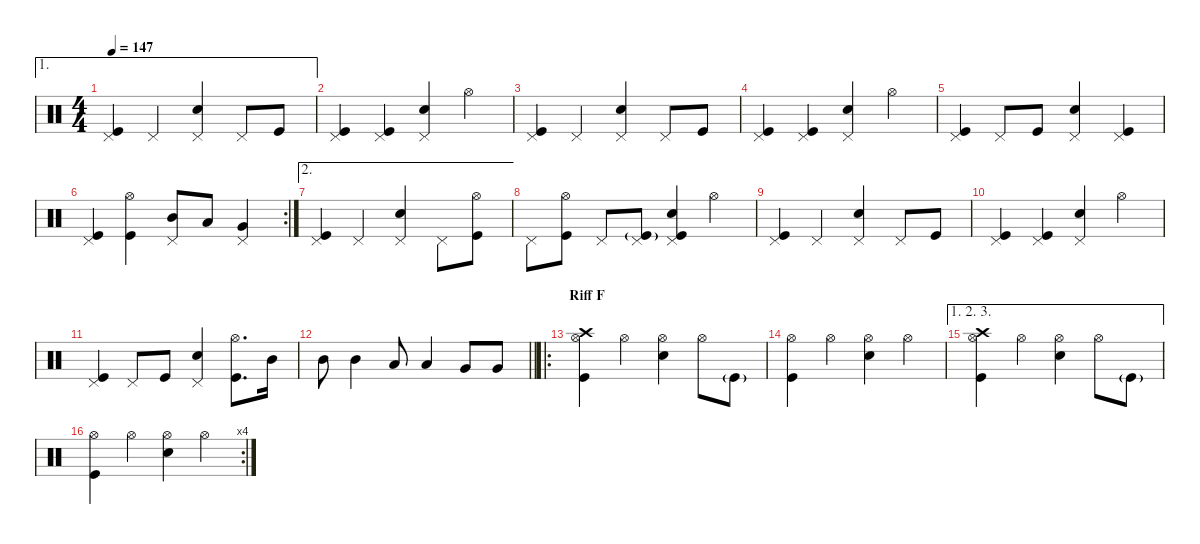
\defaultSystemsLayout 4
\hideDynamics
\bracketExtendMode nobrackets
\singleTrackTrackNamePolicy hidden
\multiTrackTrackNamePolicy hidden
\firstSystemTrackNameMode fullname
\otherSystemsTrackNameOrientation horizontal
\track ("Percussion" "drm.") {instrument percussion}
\staff {score}
\articulation defaults
\ae 1
\ts (4 4)
\tempo 147
\clef neutral
\ks c
("Kick (hit)" "Pedal Hi-Hat (hit)").4{dy f} "Pedal Hi-Hat (hit)".4 ("Snare (hit) 2" "Pedal Hi-Hat (hit)").4 "Pedal Hi-Hat (hit)".8 "Kick (hit)".8 |
("Kick (hit)" "Pedal Hi-Hat (hit)").4 ("Kick (hit)" "Pedal Hi-Hat (hit)").4 ("Snare (hit) 2" "Pedal Hi-Hat (hit)").4 "Hi-Hat (open)".4 |
("Kick (hit)" "Pedal Hi-Hat (hit)").4 "Pedal Hi-Hat (hit)".4 ("Snare (hit) 2" "Pedal Hi-Hat (hit)").4 "Pedal Hi-Hat (hit)".8 "Kick (hit)".8 |
("Kick (hit)" "Pedal Hi-Hat (hit)").4 ("Kick (hit)" "Pedal Hi-Hat (hit)").4 ("Snare (hit) 2" "Pedal Hi-Hat (hit)").4 "Hi-Hat (open)".4 |
("Kick (hit)" "Pedal Hi-Hat (hit)").4 "Pedal Hi-Hat (hit)".8 "Kick (hit)".8 ("Snare (hit) 2" "Pedal Hi-Hat (hit)").4 ("Kick (hit)" "Pedal Hi-Hat (hit)").4 |
\rc 2
("Kick (hit)" "Pedal Hi-Hat (hit)").4 ("Kick (hit)" "Hi-Hat (open)").4 ("Mid Tom (hit)" "Pedal Hi-Hat (hit)").8 "Low Tom (hit)".8{dy mf} ("Very Low Tom (hit)" "Pedal Hi-Hat (hit)").4{dy f} |
\ae 2
("Kick (hit)" "Pedal Hi-Hat (hit)").4 "Pedal Hi-Hat (hit)".4 ("Snare (hit) 2" "Pedal Hi-Hat (hit)").4 "Pedal Hi-Hat (hit)".8 ("Kick (hit)" "Hi-Hat (open)").8 |
"Pedal Hi-Hat (hit)".8 ("Kick (hit)" "Hi-Hat (open)").8 "Pedal Hi-Hat (hit)".8 ("Kick (hit)"{g} "Pedal Hi-Hat (hit)").8 ("Snare (hit) 2" "Kick (hit)" "Pedal Hi-Hat (hit)").4 "Hi-Hat (open)".4 |
("Kick (hit)" "Pedal Hi-Hat (hit)").4 "Pedal Hi-Hat (hit)".4 ("Snare (hit) 2" "Pedal Hi-Hat (hit)").4 "Pedal Hi-Hat (hit)".8 "Kick (hit)".8 |
("Kick (hit)" "Pedal Hi-Hat (hit)").4 ("Kick (hit)" "Pedal Hi-Hat (hit)").4 ("Snare (hit) 2" "Pedal Hi-Hat (hit)").4 "Hi-Hat (open)".4 |
("Kick (hit)" "Pedal Hi-Hat (hit)").4 "Pedal Hi-Hat (hit)".8 "Kick (hit)".8 ("Snare (hit) 2" "Pedal Hi-Hat (hit)").4 ("Kick (hit)" "Hi-Hat (open)").8{d} "Mid Tom (hit)".16{dy mf} |
\barLineRight lightlight "Mid Tom (hit)".8{dy ff} "Mid Tom (hit)".4 "Low Tom (hit)".8{dy mf} "Low Tom (hit)".4{dy ff} "Very Low Tom (hit)".8{dy f} "Very Low Tom (hit)".8
|
\ro
\section ("" "Riff F")
("Crash high (hit)" "Kick (hit)" "Hi-Hat (open)").4 "Hi-Hat (open)".4{dy mf} ("Snare (hit) 2" "Hi-Hat (open)").4{dy f} "Hi-Hat (open)".8{dy mf} "Kick (hit)"{g}.8 |
("Kick (hit)" "Hi-Hat (open)").4{dy f} "Hi-Hat (open)".4{dy mf} ("Snare (hit) 2" "Hi-Hat (open)").4{dy f} "Hi-Hat (open)".4{dy mf} |
\ae (1 2 3)
("Crash high (hit)" "Kick (hit)" "Hi-Hat (open)").4 "Hi-Hat (open)".4 ("Snare (hit) 2" "Hi-Hat (open)").4{dy f} "Hi-Hat (open)".8{dy mf} "Kick (hit)"{g}.8 |
\rc 4
("Kick (hit)" "Hi-Hat (open)").4{dy f} "Hi-Hat (open)".4{dy mf} ("Snare (hit) 2" "Hi-Hat (open)").4{dy f} "Hi-Hat (open)".4{dy mf}
